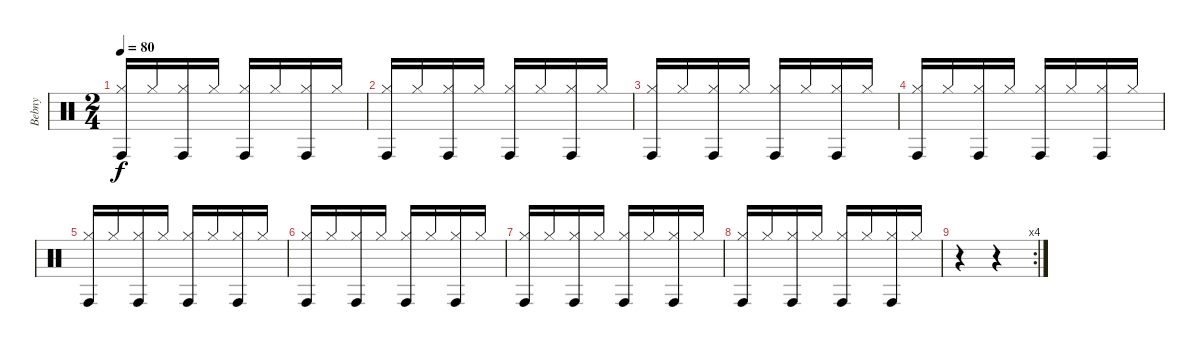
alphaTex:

\track ("Bebny" "Bebny") {instrument percussion}
\staff {score}
\articulation defaults
\ts (2 4)
\tempo 80
\clef neutral
\ks c
("Hi-Hat (closed)" "Conga high (hit)").16{dy f} "Hi-Hat (closed)".16 ("Hi-Hat (closed)" "Conga high (hit)").16 "Hi-Hat (closed)".16 ("Hi-Hat (closed)" "Conga high (hit)").16 "Hi-Hat (closed)".16 ("Hi-Hat (closed)" "Conga high (hit)").16 "Hi-Hat (closed)".16 |
("Hi-Hat (closed)" "Conga high (hit)").16 "Hi-Hat (closed)".16 ("Hi-Hat (closed)" "Conga high (hit)").16 "Hi-Hat (closed)".16 ("Hi-Hat (closed)" "Conga high (hit)").16 "Hi-Hat (closed)".16 ("Hi-Hat (closed)" "Conga high (hit)").16 "Hi-Hat (closed)".16 |
("Hi-Hat (closed)" "Conga high (hit)").16 "Hi-Hat (closed)".16 ("Hi-Hat (closed)" "Conga high (hit)").16 "Hi-Hat (closed)".16 ("Hi-Hat (closed)" "Conga high (hit)").16 "Hi-Hat (closed)".16 ("Hi-Hat (closed)" "Conga high (hit)").16 "Hi-Hat (closed)".16 |
("Hi-Hat (closed)" "Conga high (hit)").16 "Hi-Hat (closed)".16 ("Hi-Hat (closed)" "Conga high (hit)").16 "Hi-Hat (closed)".16 ("Hi-Hat (closed)" "Conga high (hit)").16 "Hi-Hat (closed)".16 ("Hi-Hat (closed)" "Conga high (hit)").16 "Hi-Hat (closed)".16 |
("Hi-Hat (closed)" "Conga high (hit)").16 "Hi-Hat (closed)".16 ("Hi-Hat (closed)" "Conga high (hit)").16 "Hi-Hat (closed)".16 ("Hi-Hat (closed)" "Conga high (hit)").16 "Hi-Hat (closed)".16 ("Hi-Hat (closed)" "Conga high (hit)").16 "Hi-Hat (closed)".16 |
("Hi-Hat (closed)" "Conga high (hit)").16 "Hi-Hat (closed)".16 ("Hi-Hat (closed)" "Conga high (hit)").16 "Hi-Hat (closed)".16 ("Hi-Hat (closed)" "Conga high (hit)").16 "Hi-Hat (closed)".16 ("Hi-Hat (closed)" "Conga high (hit)").16 "Hi-Hat (closed)".16 |
("Hi-Hat (closed)" "Conga high (hit)").16 "Hi-Hat (closed)".16 ("Hi-Hat (closed)" "Conga high (hit)").16 "Hi-Hat (closed)".16 ("Hi-Hat (closed)" "Conga high (hit)").16 "Hi-Hat (closed)".16 ("Hi-Hat (closed)" "Conga high (hit)").16 "Hi-Hat (closed)".16 |
("Hi-Hat (closed)" "Conga high (hit)").16 "Hi-Hat (closed)".16 ("Hi-Hat (closed)" "Conga high (hit)").16 "Hi-Hat (closed)".16 ("Hi-Hat (closed)" "Conga high (hit)").16 "Hi-Hat (closed)".16 ("Hi-Hat (closed)" "Conga high (hit)").16 "Hi-Hat (closed)".16 |
\rc 4
r.4 r.4
